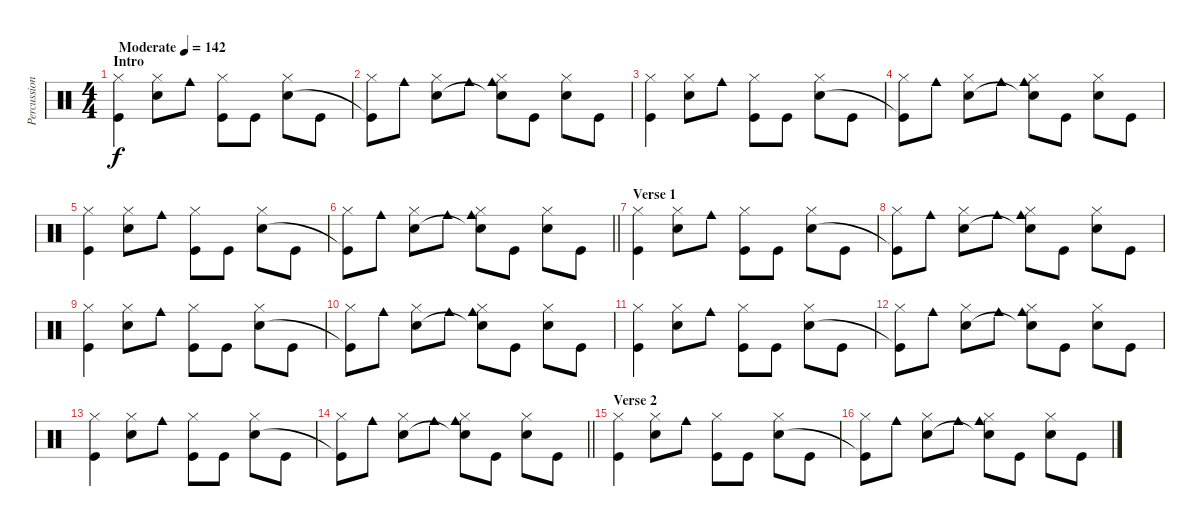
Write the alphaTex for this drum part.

\track ("Percussion" "Percussion") {instrument percussion}
\staff {score}
\articulation defaults
\ts (4 4)
\section ("" "Intro")
\tempo (142 "Moderate")
\clef neutral
\ks c
("Kick (hit)" "Hi-Hat (closed)").4{dy f} ("Snare (hit) 2" "Hi-Hat (closed)").8 "Cowbell medium (hit)".8 ("Hi-Hat (closed)" "Kick (hit)").8 "Kick (hit)".8 ("Hi-Hat (closed)" "Snare (hit) 2").8 "Kick (hit)".8 |
("Hi-Hat (closed)" "Kick (hit)"{t}).8 "Cowbell medium (hit)".8 ("Hi-Hat (closed)" "Snare (hit) 2").8 "Cowbell medium (hit)".8 ("Hi-Hat (closed)" "Snare (hit) 2"{t} "Cowbell medium (hit)").8 "Kick (hit)".8 ("Hi-Hat (closed)" "Snare (hit) 2").8 "Kick (hit)".8 |
("Kick (hit)" "Hi-Hat (closed)").4 ("Snare (hit) 2" "Hi-Hat (closed)").8 "Cowbell medium (hit)".8 ("Hi-Hat (closed)" "Kick (hit)").8 "Kick (hit)".8 ("Hi-Hat (closed)" "Snare (hit) 2").8 "Kick (hit)".8 |
("Hi-Hat (closed)" "Kick (hit)"{t}).8 "Cowbell medium (hit)".8 ("Hi-Hat (closed)" "Snare (hit) 2").8 "Cowbell medium (hit)".8 ("Hi-Hat (closed)" "Snare (hit) 2"{t} "Cowbell medium (hit)").8 "Kick (hit)".8 ("Hi-Hat (closed)" "Snare (hit) 2").8 "Kick (hit)".8 |
("Kick (hit)" "Hi-Hat (closed)").4 ("Snare (hit) 2" "Hi-Hat (closed)").8 "Cowbell medium (hit)".8 ("Hi-Hat (closed)" "Kick (hit)").8 "Kick (hit)".8 ("Hi-Hat (closed)" "Snare (hit) 2").8 "Kick (hit)".8 |
\barLineRight lightlight
("Hi-Hat (closed)" "Kick (hit)"{t}).8 "Cowbell medium (hit)".8 ("Hi-Hat (closed)" "Snare (hit) 2").8 "Cowbell medium (hit)".8 ("Hi-Hat (closed)" "Snare (hit) 2"{t} "Cowbell medium (hit)").8 "Kick (hit)".8 ("Hi-Hat (closed)" "Snare (hit) 2").8 "Kick (hit)".8 |
\section ("" "Verse 1")
("Kick (hit)" "Hi-Hat (closed)").4 ("Snare (hit) 2" "Hi-Hat (closed)").8 "Cowbell medium (hit)".8 ("Hi-Hat (closed)" "Kick (hit)").8 "Kick (hit)".8 ("Hi-Hat (closed)" "Snare (hit) 2").8 "Kick (hit)".8 |
("Hi-Hat (closed)" "Kick (hit)"{t}).8 "Cowbell medium (hit)".8 ("Hi-Hat (closed)" "Snare (hit) 2").8 "Cowbell medium (hit)".8 ("Hi-Hat (closed)" "Snare (hit) 2"{t} "Cowbell medium (hit)").8 "Kick (hit)".8 ("Hi-Hat (closed)" "Snare (hit) 2").8 "Kick (hit)".8 |
("Kick (hit)" "Hi-Hat (closed)").4 ("Snare (hit) 2" "Hi-Hat (closed)").8 "Cowbell medium (hit)".8 ("Hi-Hat (closed)" "Kick (hit)").8 "Kick (hit)".8 ("Hi-Hat (closed)" "Snare (hit) 2").8 "Kick (hit)".8 |
("Hi-Hat (closed)" "Kick (hit)"{t}).8 "Cowbell medium (hit)".8 ("Hi-Hat (closed)" "Snare (hit) 2").8 "Cowbell medium (hit)".8 ("Hi-Hat (closed)" "Snare (hit) 2"{t} "Cowbell medium (hit)").8 "Kick (hit)".8 ("Hi-Hat (closed)" "Snare (hit) 2").8 "Kick (hit)".8 |
("Kick (hit)" "Hi-Hat (closed)").4 ("Snare (hit) 2" "Hi-Hat (closed)").8 "Cowbell medium (hit)".8 ("Hi-Hat (closed)" "Kick (hit)").8 "Kick (hit)".8 ("Hi-Hat (closed)" "Snare (hit) 2").8 "Kick (hit)".8 |
("Hi-Hat (closed)" "Kick (hit)"{t}).8 "Cowbell medium (hit)".8 ("Hi-Hat (closed)" "Snare (hit) 2").8 "Cowbell medium (hit)".8 ("Hi-Hat (closed)" "Snare (hit) 2"{t} "Cowbell medium (hit)").8 "Kick (hit)".8 ("Hi-Hat (closed)" "Snare (hit) 2").8 "Kick (hit)".8 |
("Kick (hit)" "Hi-Hat (closed)").4 ("Snare (hit) 2" "Hi-Hat (closed)").8 "Cowbell medium (hit)".8 ("Hi-Hat (closed)" "Kick (hit)").8 "Kick (hit)".8 ("Hi-Hat (closed)" "Snare (hit) 2").8 "Kick (hit)".8 |
\barLineRight lightlight
("Hi-Hat (closed)" "Kick (hit)"{t}).8 "Cowbell medium (hit)".8 ("Hi-Hat (closed)" "Snare (hit) 2").8 "Cowbell medium (hit)".8 ("Hi-Hat (closed)" "Snare (hit) 2"{t} "Cowbell medium (hit)").8 "Kick (hit)".8 ("Hi-Hat (closed)" "Snare (hit) 2").8 "Kick (hit)".8 |
\section ("" "Verse 2")
("Kick (hit)" "Hi-Hat (closed)").4 ("Snare (hit) 2" "Hi-Hat (closed)").8 "Cowbell medium (hit)".8 ("Hi-Hat (closed)" "Kick (hit)").8 "Kick (hit)".8 ("Hi-Hat (closed)" "Snare (hit) 2").8 "Kick (hit)".8 |
("Hi-Hat (closed)" "Kick (hit)"{t}).8 "Cowbell medium (hit)".8 ("Hi-Hat (closed)" "Snare (hit) 2").8 "Cowbell medium (hit)".8 ("Hi-Hat (closed)" "Snare (hit) 2"{t} "Cowbell medium (hit)").8 "Kick (hit)".8 ("Hi-Hat (closed)" "Snare (hit) 2").8 "Kick (hit)".8
